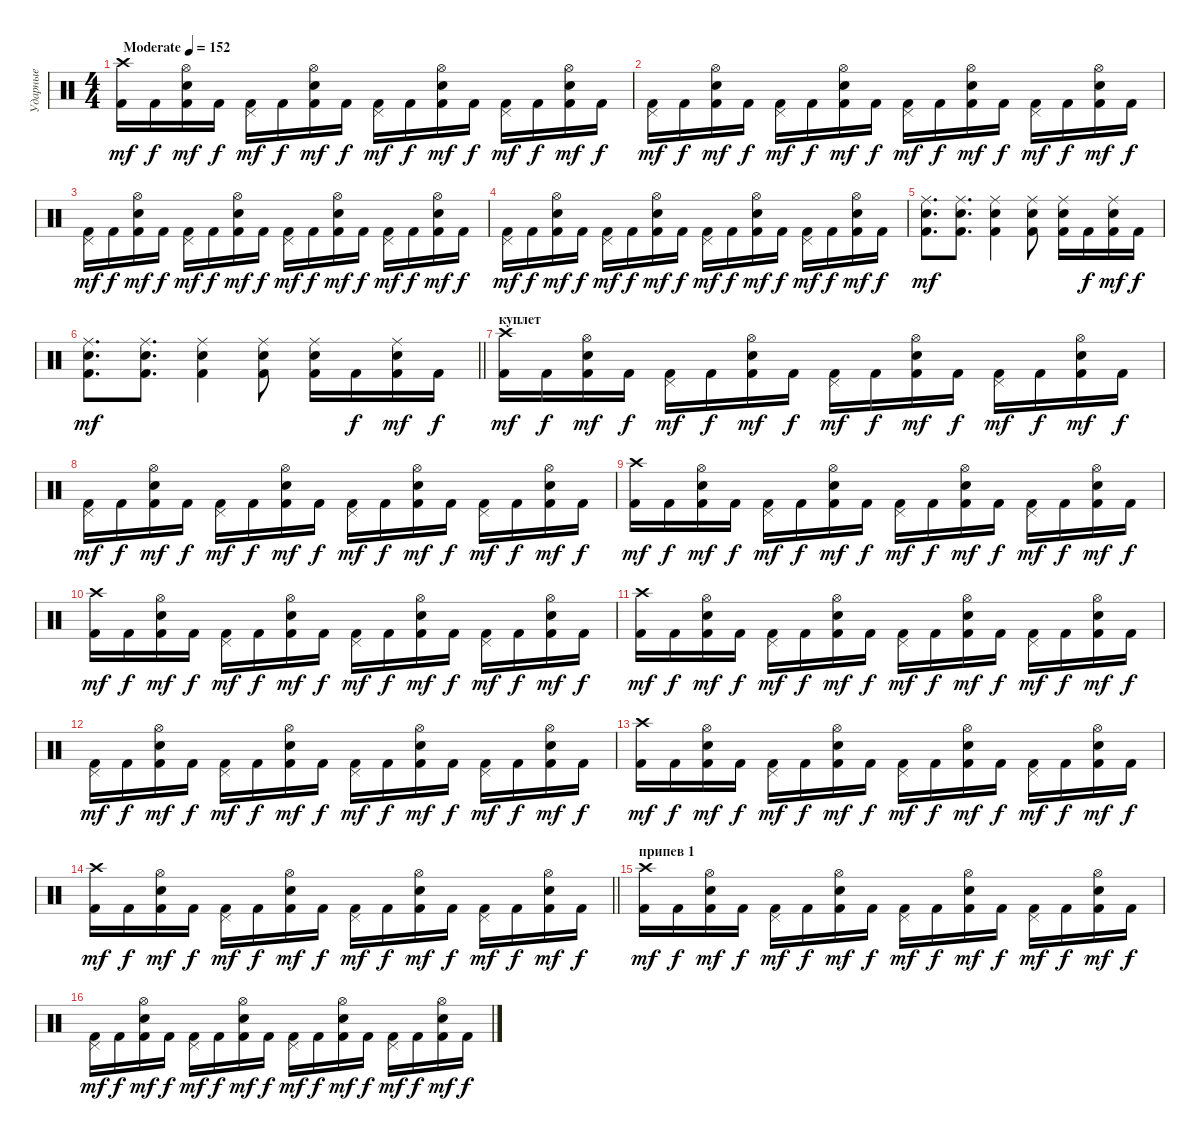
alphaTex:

\track ("Ударные" "Ударные") {instrument percussion}
\staff {score}
\articulation defaults
\ts (4 4)
\tempo (152 "Moderate")
\clef neutral
\ks c
("Kick (hit) 2" "Crash high (hit)").16{dy mf} "Kick (hit) 2".16{dy f} ("Kick (hit) 2" "Electric Snare (hit)" "Hi-Hat (open)").16{dy mf} "Kick (hit) 2".16{dy f} ("Kick (hit) 2" "Pedal Hi-Hat (hit)").16{dy mf} "Kick (hit) 2".16{dy f} ("Kick (hit) 2" "Electric Snare (hit)" "Hi-Hat (open)").16{dy mf} "Kick (hit) 2".16{dy f} ("Kick (hit) 2" "Pedal Hi-Hat (hit)").16{dy mf} "Kick (hit) 2".16{dy f} ("Kick (hit) 2" "Electric Snare (hit)" "Hi-Hat (open)").16{dy mf} "Kick (hit) 2".16{dy f} ("Kick (hit) 2" "Pedal Hi-Hat (hit)").16{dy mf} "Kick (hit) 2".16{dy f} ("Kick (hit) 2" "Electric Snare (hit)" "Hi-Hat (open)").16{dy mf} "Kick (hit) 2".16{dy f} |
("Kick (hit) 2" "Pedal Hi-Hat (hit)").16{dy mf} "Kick (hit) 2".16{dy f} ("Kick (hit) 2" "Electric Snare (hit)" "Hi-Hat (open)").16{dy mf} "Kick (hit) 2".16{dy f} ("Kick (hit) 2" "Pedal Hi-Hat (hit)").16{dy mf} "Kick (hit) 2".16{dy f} ("Kick (hit) 2" "Electric Snare (hit)" "Hi-Hat (open)").16{dy mf} "Kick (hit) 2".16{dy f} ("Kick (hit) 2" "Pedal Hi-Hat (hit)").16{dy mf} "Kick (hit) 2".16{dy f} ("Kick (hit) 2" "Electric Snare (hit)" "Hi-Hat (open)").16{dy mf} "Kick (hit) 2".16{dy f} ("Kick (hit) 2" "Pedal Hi-Hat (hit)").16{dy mf} "Kick (hit) 2".16{dy f} ("Kick (hit) 2" "Electric Snare (hit)" "Hi-Hat (open)").16{dy mf} "Kick (hit) 2".16{dy f} |
("Kick (hit) 2" "Pedal Hi-Hat (hit)").16{dy mf} "Kick (hit) 2".16{dy f} ("Kick (hit) 2" "Electric Snare (hit)" "Hi-Hat (open)").16{dy mf} "Kick (hit) 2".16{dy f} ("Kick (hit) 2" "Pedal Hi-Hat (hit)").16{dy mf} "Kick (hit) 2".16{dy f} ("Kick (hit) 2" "Electric Snare (hit)" "Hi-Hat (open)").16{dy mf} "Kick (hit) 2".16{dy f} ("Kick (hit) 2" "Pedal Hi-Hat (hit)").16{dy mf} "Kick (hit) 2".16{dy f} ("Kick (hit) 2" "Electric Snare (hit)" "Hi-Hat (open)").16{dy mf} "Kick (hit) 2".16{dy f} ("Kick (hit) 2" "Pedal Hi-Hat (hit)").16{dy mf} "Kick (hit) 2".16{dy f} ("Kick (hit) 2" "Electric Snare (hit)" "Hi-Hat (open)").16{dy mf} "Kick (hit) 2".16{dy f} |
("Kick (hit) 2" "Pedal Hi-Hat (hit)").16{dy mf} "Kick (hit) 2".16{dy f} ("Kick (hit) 2" "Electric Snare (hit)" "Hi-Hat (open)").16{dy mf} "Kick (hit) 2".16{dy f} ("Kick (hit) 2" "Pedal Hi-Hat (hit)").16{dy mf} "Kick (hit) 2".16{dy f} ("Kick (hit) 2" "Electric Snare (hit)" "Hi-Hat (open)").16{dy mf} "Kick (hit) 2".16{dy f} ("Kick (hit) 2" "Pedal Hi-Hat (hit)").16{dy mf} "Kick (hit) 2".16{dy f} ("Kick (hit) 2" "Electric Snare (hit)" "Hi-Hat (open)").16{dy mf} "Kick (hit) 2".16{dy f} ("Kick (hit) 2" "Pedal Hi-Hat (hit)").16{dy mf} "Kick (hit) 2".16{dy f} ("Kick (hit) 2" "Electric Snare (hit)" "Hi-Hat (open)").16{dy mf} "Kick (hit) 2".16{dy f} |
("Kick (hit) 2" "Electric Snare (hit)" "Ride (middle)").8{d dy mf} ("Kick (hit) 2" "Electric Snare (hit)" "Ride (middle)").8{d} ("Kick (hit) 2" "Electric Snare (hit)" "Ride (middle)").4 ("Kick (hit) 2" "Electric Snare (hit)" "Ride (middle)").8 ("Kick (hit) 2" "Electric Snare (hit)" "Ride (middle)").16 "Kick (hit) 2".16{dy f} ("Kick (hit) 2" "Electric Snare (hit)" "Ride (middle)").16{dy mf} "Kick (hit) 2".16{dy f} |
\barLineRight lightlight
("Kick (hit) 2" "Electric Snare (hit)" "Ride (middle)").8{d dy mf} ("Kick (hit) 2" "Electric Snare (hit)" "Ride (middle)").8{d} ("Kick (hit) 2" "Electric Snare (hit)" "Ride (middle)").4 ("Kick (hit) 2" "Electric Snare (hit)" "Ride (middle)").8 ("Kick (hit) 2" "Electric Snare (hit)" "Ride (middle)").16 "Kick (hit) 2".16{dy f} ("Kick (hit) 2" "Electric Snare (hit)" "Ride (middle)").16{dy mf} "Kick (hit) 2".16{dy f} |
\section ("" "куплет")
("Kick (hit) 2" "Crash high (hit)").16{dy mf} "Kick (hit) 2".16{dy f} ("Kick (hit) 2" "Electric Snare (hit)" "Hi-Hat (open)").16{dy mf} "Kick (hit) 2".16{dy f} ("Kick (hit) 2" "Pedal Hi-Hat (hit)").16{dy mf} "Kick (hit) 2".16{dy f} ("Kick (hit) 2" "Electric Snare (hit)" "Hi-Hat (open)").16{dy mf} "Kick (hit) 2".16{dy f} ("Kick (hit) 2" "Pedal Hi-Hat (hit)").16{dy mf} "Kick (hit) 2".16{dy f} ("Kick (hit) 2" "Electric Snare (hit)" "Hi-Hat (open)").16{dy mf} "Kick (hit) 2".16{dy f} ("Kick (hit) 2" "Pedal Hi-Hat (hit)").16{dy mf} "Kick (hit) 2".16{dy f} ("Kick (hit) 2" "Electric Snare (hit)" "Hi-Hat (open)").16{dy mf} "Kick (hit) 2".16{dy f} |
("Kick (hit) 2" "Pedal Hi-Hat (hit)").16{dy mf} "Kick (hit) 2".16{dy f} ("Kick (hit) 2" "Electric Snare (hit)" "Hi-Hat (open)").16{dy mf} "Kick (hit) 2".16{dy f} ("Kick (hit) 2" "Pedal Hi-Hat (hit)").16{dy mf} "Kick (hit) 2".16{dy f} ("Kick (hit) 2" "Electric Snare (hit)" "Hi-Hat (open)").16{dy mf} "Kick (hit) 2".16{dy f} ("Kick (hit) 2" "Pedal Hi-Hat (hit)").16{dy mf} "Kick (hit) 2".16{dy f} ("Kick (hit) 2" "Electric Snare (hit)" "Hi-Hat (open)").16{dy mf} "Kick (hit) 2".16{dy f} ("Kick (hit) 2" "Pedal Hi-Hat (hit)").16{dy mf} "Kick (hit) 2".16{dy f} ("Kick (hit) 2" "Electric Snare (hit)" "Hi-Hat (open)").16{dy mf} "Kick (hit) 2".16{dy f} |
("Kick (hit) 2" "Crash high (hit)").16{dy mf} "Kick (hit) 2".16{dy f} ("Kick (hit) 2" "Electric Snare (hit)" "Hi-Hat (open)").16{dy mf} "Kick (hit) 2".16{dy f} ("Kick (hit) 2" "Pedal Hi-Hat (hit)").16{dy mf} "Kick (hit) 2".16{dy f} ("Kick (hit) 2" "Electric Snare (hit)" "Hi-Hat (open)").16{dy mf} "Kick (hit) 2".16{dy f} ("Kick (hit) 2" "Pedal Hi-Hat (hit)").16{dy mf} "Kick (hit) 2".16{dy f} ("Kick (hit) 2" "Electric Snare (hit)" "Hi-Hat (open)").16{dy mf} "Kick (hit) 2".16{dy f} ("Kick (hit) 2" "Pedal Hi-Hat (hit)").16{dy mf} "Kick (hit) 2".16{dy f} ("Kick (hit) 2" "Electric Snare (hit)" "Hi-Hat (open)").16{dy mf} "Kick (hit) 2".16{dy f} |
("Kick (hit) 2" "Crash high (hit)").16{dy mf} "Kick (hit) 2".16{dy f} ("Kick (hit) 2" "Electric Snare (hit)" "Hi-Hat (open)").16{dy mf} "Kick (hit) 2".16{dy f} ("Kick (hit) 2" "Pedal Hi-Hat (hit)").16{dy mf} "Kick (hit) 2".16{dy f} ("Kick (hit) 2" "Electric Snare (hit)" "Hi-Hat (open)").16{dy mf} "Kick (hit) 2".16{dy f} ("Kick (hit) 2" "Pedal Hi-Hat (hit)").16{dy mf} "Kick (hit) 2".16{dy f} ("Kick (hit) 2" "Electric Snare (hit)" "Hi-Hat (open)").16{dy mf} "Kick (hit) 2".16{dy f} ("Kick (hit) 2" "Pedal Hi-Hat (hit)").16{dy mf} "Kick (hit) 2".16{dy f} ("Kick (hit) 2" "Electric Snare (hit)" "Hi-Hat (open)").16{dy mf} "Kick (hit) 2".16{dy f} |
("Kick (hit) 2" "Crash high (hit)").16{dy mf} "Kick (hit) 2".16{dy f} ("Kick (hit) 2" "Electric Snare (hit)" "Hi-Hat (open)").16{dy mf} "Kick (hit) 2".16{dy f} ("Kick (hit) 2" "Pedal Hi-Hat (hit)").16{dy mf} "Kick (hit) 2".16{dy f} ("Kick (hit) 2" "Electric Snare (hit)" "Hi-Hat (open)").16{dy mf} "Kick (hit) 2".16{dy f} ("Kick (hit) 2" "Pedal Hi-Hat (hit)").16{dy mf} "Kick (hit) 2".16{dy f} ("Kick (hit) 2" "Electric Snare (hit)" "Hi-Hat (open)").16{dy mf} "Kick (hit) 2".16{dy f} ("Kick (hit) 2" "Pedal Hi-Hat (hit)").16{dy mf} "Kick (hit) 2".16{dy f} ("Kick (hit) 2" "Electric Snare (hit)" "Hi-Hat (open)").16{dy mf} "Kick (hit) 2".16{dy f} |
("Kick (hit) 2" "Pedal Hi-Hat (hit)").16{dy mf} "Kick (hit) 2".16{dy f} ("Kick (hit) 2" "Electric Snare (hit)" "Hi-Hat (open)").16{dy mf} "Kick (hit) 2".16{dy f} ("Kick (hit) 2" "Pedal Hi-Hat (hit)").16{dy mf} "Kick (hit) 2".16{dy f} ("Kick (hit) 2" "Electric Snare (hit)" "Hi-Hat (open)").16{dy mf} "Kick (hit) 2".16{dy f} ("Kick (hit) 2" "Pedal Hi-Hat (hit)").16{dy mf} "Kick (hit) 2".16{dy f} ("Kick (hit) 2" "Electric Snare (hit)" "Hi-Hat (open)").16{dy mf} "Kick (hit) 2".16{dy f} ("Kick (hit) 2" "Pedal Hi-Hat (hit)").16{dy mf} "Kick (hit) 2".16{dy f} ("Kick (hit) 2" "Electric Snare (hit)" "Hi-Hat (open)").16{dy mf} "Kick (hit) 2".16{dy f} |
("Kick (hit) 2" "Crash high (hit)").16{dy mf} "Kick (hit) 2".16{dy f} ("Kick (hit) 2" "Electric Snare (hit)" "Hi-Hat (open)").16{dy mf} "Kick (hit) 2".16{dy f} ("Kick (hit) 2" "Pedal Hi-Hat (hit)").16{dy mf} "Kick (hit) 2".16{dy f} ("Kick (hit) 2" "Electric Snare (hit)" "Hi-Hat (open)").16{dy mf} "Kick (hit) 2".16{dy f} ("Kick (hit) 2" "Pedal Hi-Hat (hit)").16{dy mf} "Kick (hit) 2".16{dy f} ("Kick (hit) 2" "Electric Snare (hit)" "Hi-Hat (open)").16{dy mf} "Kick (hit) 2".16{dy f} ("Kick (hit) 2" "Pedal Hi-Hat (hit)").16{dy mf} "Kick (hit) 2".16{dy f} ("Kick (hit) 2" "Electric Snare (hit)" "Hi-Hat (open)").16{dy mf} "Kick (hit) 2".16{dy f} |
\barLineRight lightlight
("Kick (hit) 2" "Crash high (hit)").16{dy mf} "Kick (hit) 2".16{dy f} ("Kick (hit) 2" "Electric Snare (hit)" "Hi-Hat (open)").16{dy mf} "Kick (hit) 2".16{dy f} ("Kick (hit) 2" "Pedal Hi-Hat (hit)").16{dy mf} "Kick (hit) 2".16{dy f} ("Kick (hit) 2" "Electric Snare (hit)" "Hi-Hat (open)").16{dy mf} "Kick (hit) 2".16{dy f} ("Kick (hit) 2" "Pedal Hi-Hat (hit)").16{dy mf} "Kick (hit) 2".16{dy f} ("Kick (hit) 2" "Electric Snare (hit)" "Hi-Hat (open)").16{dy mf} "Kick (hit) 2".16{dy f} ("Kick (hit) 2" "Pedal Hi-Hat (hit)").16{dy mf} "Kick (hit) 2".16{dy f} ("Kick (hit) 2" "Electric Snare (hit)" "Hi-Hat (open)").16{dy mf} "Kick (hit) 2".16{dy f} |
\section ("" "припев 1")
("Kick (hit) 2" "Crash high (hit)").16{dy mf} "Kick (hit) 2".16{dy f} ("Kick (hit) 2" "Electric Snare (hit)" "Hi-Hat (open)").16{dy mf} "Kick (hit) 2".16{dy f} ("Kick (hit) 2" "Pedal Hi-Hat (hit)").16{dy mf} "Kick (hit) 2".16{dy f} ("Kick (hit) 2" "Electric Snare (hit)" "Hi-Hat (open)").16{dy mf} "Kick (hit) 2".16{dy f} ("Kick (hit) 2" "Pedal Hi-Hat (hit)").16{dy mf} "Kick (hit) 2".16{dy f} ("Kick (hit) 2" "Electric Snare (hit)" "Hi-Hat (open)").16{dy mf} "Kick (hit) 2".16{dy f} ("Kick (hit) 2" "Pedal Hi-Hat (hit)").16{dy mf} "Kick (hit) 2".16{dy f} ("Kick (hit) 2" "Electric Snare (hit)" "Hi-Hat (open)").16{dy mf} "Kick (hit) 2".16{dy f} |
("Kick (hit) 2" "Pedal Hi-Hat (hit)").16{dy mf} "Kick (hit) 2".16{dy f} ("Kick (hit) 2" "Electric Snare (hit)" "Hi-Hat (open)").16{dy mf} "Kick (hit) 2".16{dy f} ("Kick (hit) 2" "Pedal Hi-Hat (hit)").16{dy mf} "Kick (hit) 2".16{dy f} ("Kick (hit) 2" "Electric Snare (hit)" "Hi-Hat (open)").16{dy mf} "Kick (hit) 2".16{dy f} ("Kick (hit) 2" "Pedal Hi-Hat (hit)").16{dy mf} "Kick (hit) 2".16{dy f} ("Kick (hit) 2" "Electric Snare (hit)" "Hi-Hat (open)").16{dy mf} "Kick (hit) 2".16{dy f} ("Kick (hit) 2" "Pedal Hi-Hat (hit)").16{dy mf} "Kick (hit) 2".16{dy f} ("Kick (hit) 2" "Electric Snare (hit)" "Hi-Hat (open)").16{dy mf} "Kick (hit) 2".16{dy f}
